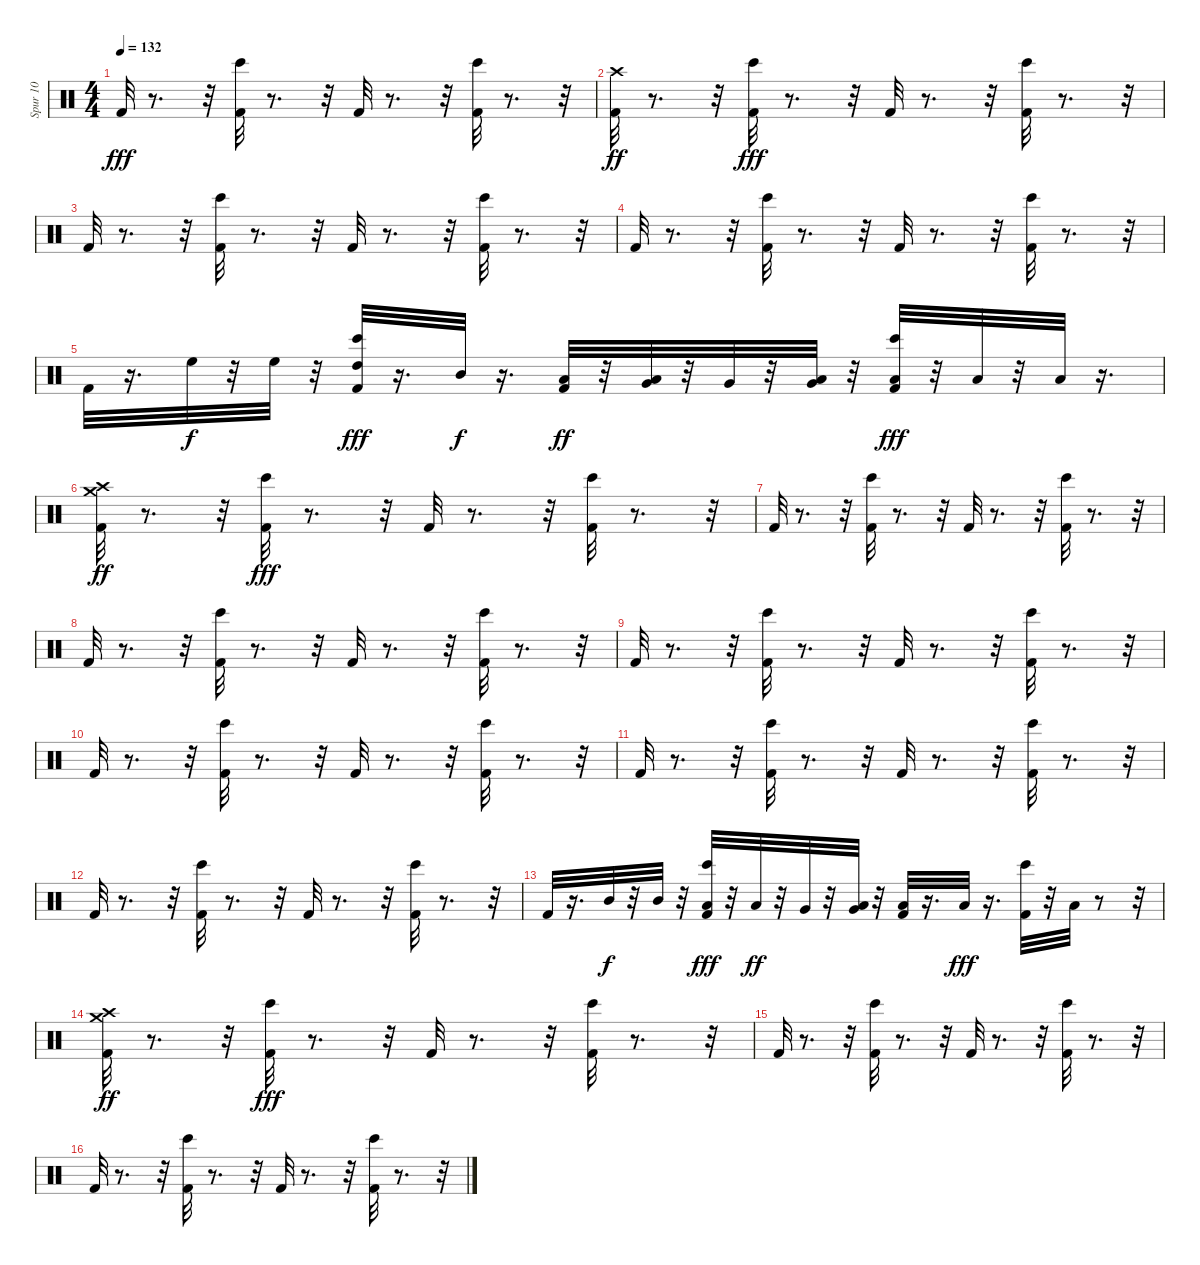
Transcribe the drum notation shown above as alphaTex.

\track ("Spur 10" "Spur 10") {instrument percussion}
\staff {score}
\articulation defaults
\ts (4 4)
\tempo 132
\clef neutral
\ks c "Kick (hit) 2".32{dy fff}
r.8{d} r.32 ("Bongo High (hit)" "Kick (hit) 2").32 r.8{d} r.32 "Kick (hit) 2".32 r.8{d} r.32 ("Bongo High (hit)" "Kick (hit) 2").32 r.8{d} r.32 |
("Kick (hit) 2" "Crash high (hit)").32{dy ff} r.8{d} r.32 ("Bongo High (hit)" "Kick (hit) 2").32{dy fff} r.8{d} r.32 "Kick (hit) 2".32 r.8{d} r.32 ("Bongo High (hit)" "Kick (hit) 2").32 r.8{d} r.32 |
"Kick (hit) 2".32 r.8{d} r.32 ("Bongo High (hit)" "Kick (hit) 2").32 r.8{d} r.32 "Kick (hit) 2".32 r.8{d} r.32 ("Bongo High (hit)" "Kick (hit) 2").32 r.8{d} r.32 |
"Kick (hit) 2".32 r.8{d} r.32 ("Bongo High (hit)" "Kick (hit) 2").32 r.8{d} r.32 "Kick (hit) 2".32 r.8{d} r.32 ("Bongo High (hit)" "Kick (hit) 2").32 r.8{d} r.32 |
"Kick (hit) 2".32 r.16{d} "High Floor Tom (hit)".32{dy f} r.32 "High Floor Tom (hit)".32 r.32 ("Bongo High (hit)" "Kick (hit) 2" "High Tom (hit)").32{dy fff} r.16{d} "Mid Tom (hit)".32{dy f} r.16{d} ("Kick (hit) 2" "Low Tom (hit)").32{dy ff} r.32 ("Very Low Tom (hit)" "Low Tom (hit)").32 r.32 "Very Low Tom (hit)".32 r.32 ("Very Low Tom (hit)" "Low Floor Tom (hit)").32 r.32 ("Bongo High (hit)" "Kick (hit) 2" "Low Floor Tom (hit)").32{dy fff} r.32 "Low Floor Tom (hit)".32 r.32 "Low Floor Tom (hit)".32 r.16{d} |
("Crash medium (hit)" "Kick (hit) 2" "Crash high (hit)").32{dy ff} r.8{d} r.32 ("Bongo High (hit)" "Kick (hit) 2").32{dy fff} r.8{d} r.32 "Kick (hit) 2".32 r.8{d} r.32 ("Bongo High (hit)" "Kick (hit) 2").32 r.8{d} r.32 |
"Kick (hit) 2".32 r.8{d} r.32 ("Bongo High (hit)" "Kick (hit) 2").32 r.8{d} r.32 "Kick (hit) 2".32 r.8{d} r.32 ("Bongo High (hit)" "Kick (hit) 2").32 r.8{d} r.32 |
"Kick (hit) 2".32 r.8{d} r.32 ("Bongo High (hit)" "Kick (hit) 2").32 r.8{d} r.32 "Kick (hit) 2".32 r.8{d} r.32 ("Bongo High (hit)" "Kick (hit) 2").32 r.8{d} r.32 |
"Kick (hit) 2".32 r.8{d} r.32 ("Bongo High (hit)" "Kick (hit) 2").32 r.8{d} r.32 "Kick (hit) 2".32 r.8{d} r.32 ("Bongo High (hit)" "Kick (hit) 2").32 r.8{d} r.32 |
"Kick (hit) 2".32 r.8{d} r.32 ("Bongo High (hit)" "Kick (hit) 2").32 r.8{d} r.32 "Kick (hit) 2".32 r.8{d} r.32 ("Bongo High (hit)" "Kick (hit) 2").32 r.8{d} r.32 |
"Kick (hit) 2".32 r.8{d} r.32 ("Bongo High (hit)" "Kick (hit) 2").32 r.8{d} r.32 "Kick (hit) 2".32 r.8{d} r.32 ("Bongo High (hit)" "Kick (hit) 2").32 r.8{d} r.32 |
"Kick (hit) 2".32 r.8{d} r.32 ("Bongo High (hit)" "Kick (hit) 2").32 r.8{d} r.32 "Kick (hit) 2".32 r.8{d} r.32 ("Bongo High (hit)" "Kick (hit) 2").32 r.8{d} r.32 |
"Kick (hit) 2".32 r.16{d} "Mid Tom (hit)".32{dy f} r.32 "Mid Tom (hit)".32 r.32 ("Bongo High (hit)" "Kick (hit) 2" "Low Tom (hit)").32{dy fff} r.32 "Low Tom (hit)".32{dy ff} r.32 "Very Low Tom (hit)".32 r.32 ("Very Low Tom (hit)" "Low Floor Tom (hit)").32 r.32 ("Kick (hit) 2" "Low Floor Tom (hit)").32 r.16{d} "Low Tom (hit)".32{dy fff} r.16{d} ("Bongo High (hit)" "Kick (hit) 2").32 r.32 "Low Floor Tom (hit)".32 r.8 r.32 |
("Crash medium (hit)" "Kick (hit) 2" "Crash high (hit)").32{dy ff} r.8{d} r.32 ("Bongo High (hit)" "Kick (hit) 2").32{dy fff} r.8{d} r.32 "Kick (hit) 2".32 r.8{d} r.32 ("Bongo High (hit)" "Kick (hit) 2").32 r.8{d} r.32 |
"Kick (hit) 2".32 r.8{d} r.32 ("Bongo High (hit)" "Kick (hit) 2").32 r.8{d} r.32 "Kick (hit) 2".32 r.8{d} r.32 ("Bongo High (hit)" "Kick (hit) 2").32 r.8{d} r.32 |
"Kick (hit) 2".32 r.8{d} r.32 ("Bongo High (hit)" "Kick (hit) 2").32 r.8{d} r.32 "Kick (hit) 2".32 r.8{d} r.32 ("Bongo High (hit)" "Kick (hit) 2").32 r.8{d} r.32
